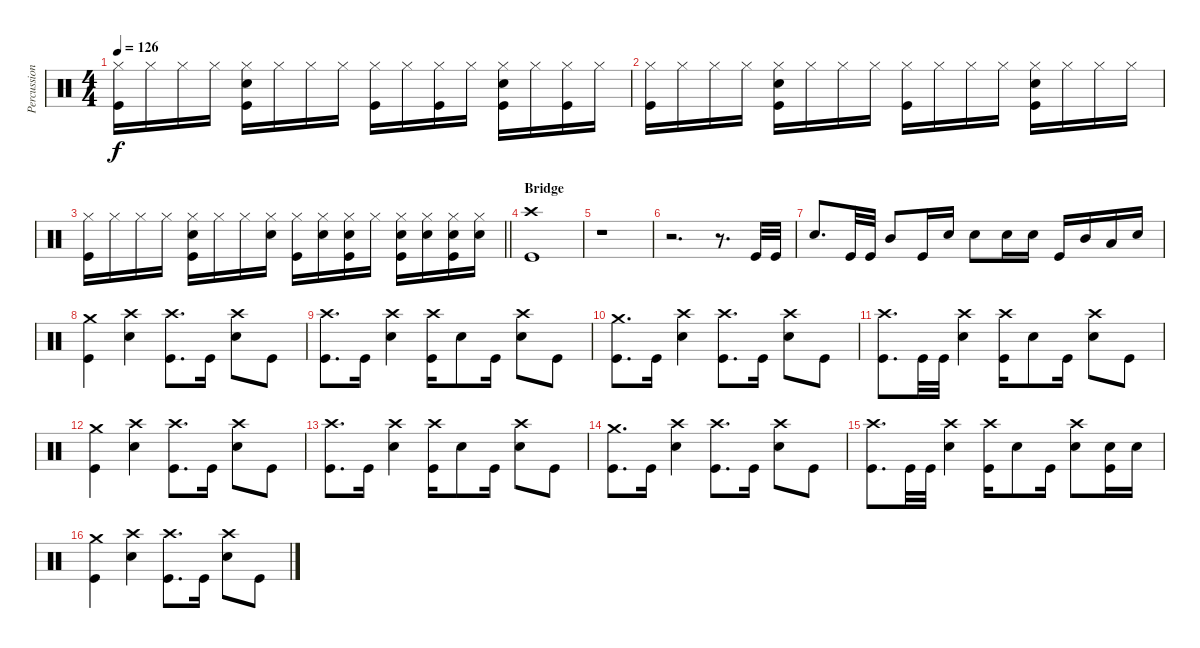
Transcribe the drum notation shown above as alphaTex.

\track ("Percussion" "Percussion") {instrument percussion}
\staff {score}
\articulation defaults
\ts (4 4)
\tempo 126
\clef neutral
\ks c
("Hi-Hat (closed)" "Kick (hit)").16{dy f} "Hi-Hat (closed)".16 "Hi-Hat (closed)".16 "Hi-Hat (closed)".16 ("Hi-Hat (closed)" "Electric Snare (hit)" "Kick (hit)").16 "Hi-Hat (closed)".16 "Hi-Hat (closed)".16 "Hi-Hat (closed)".16 ("Hi-Hat (closed)" "Kick (hit)").16 "Hi-Hat (closed)".16 ("Hi-Hat (closed)" "Kick (hit)").16 "Hi-Hat (closed)".16 ("Hi-Hat (closed)" "Electric Snare (hit)" "Kick (hit)").16 "Hi-Hat (closed)".16 ("Hi-Hat (closed)" "Kick (hit)").16 "Hi-Hat (closed)".16 |
("Hi-Hat (closed)" "Kick (hit)").16 "Hi-Hat (closed)".16 "Hi-Hat (closed)".16 "Hi-Hat (closed)".16 ("Hi-Hat (closed)" "Electric Snare (hit)" "Kick (hit)").16 "Hi-Hat (closed)".16 "Hi-Hat (closed)".16 "Hi-Hat (closed)".16 ("Hi-Hat (closed)" "Kick (hit)").16 "Hi-Hat (closed)".16 "Hi-Hat (closed)".16 "Hi-Hat (closed)".16 ("Hi-Hat (closed)" "Electric Snare (hit)" "Kick (hit)").16 "Hi-Hat (closed)".16 "Hi-Hat (closed)".16 "Hi-Hat (closed)".16 |
\barLineRight lightlight
("Hi-Hat (closed)" "Kick (hit)").16 "Hi-Hat (closed)".16 "Hi-Hat (closed)".16 "Hi-Hat (closed)".16 ("Hi-Hat (closed)" "Electric Snare (hit)" "Kick (hit)").16 "Hi-Hat (closed)".16 "Hi-Hat (closed)".16 ("Hi-Hat (closed)" "Electric Snare (hit)").16 ("Hi-Hat (closed)" "Kick (hit)").16 ("Hi-Hat (closed)" "Electric Snare (hit)").16 ("Hi-Hat (closed)" "Electric Snare (hit)" "Kick (hit)").16 "Hi-Hat (closed)".16 ("Hi-Hat (closed)" "Electric Snare (hit)" "Kick (hit)").16 ("Hi-Hat (closed)" "Electric Snare (hit)").16 ("Hi-Hat (closed)" "Electric Snare (hit)" "Kick (hit)").16 ("Hi-Hat (closed)" "Electric Snare (hit)").16 |
\section ("" "Bridge")
("Crash high (hit)" "Kick (hit)").1 |
r.1 |
r.2{d} r.8{d} "Kick (hit)".32 "Kick (hit)".32 |
"Electric Snare (hit)".8{d} "Kick (hit)".32 "Kick (hit)".32 "Mid Tom (hit)".8 "Kick (hit)".16 "Electric Snare (hit)".16 "Electric Snare (hit)".8 "Electric Snare (hit)".16 "Electric Snare (hit)".16 "Kick (hit)".16 "Mid Tom (hit)".16 "Low Tom (hit)".16 "Electric Snare (hit)".16 |
("Crash medium (hit)" "Kick (hit)").4 ("Crash high (hit)" "Electric Snare (hit)").4 ("Crash high (hit)" "Kick (hit)").8{d} "Kick (hit)".16 ("Crash high (hit)" "Electric Snare (hit)").8 "Kick (hit)".8 |
("Crash high (hit)" "Kick (hit)").8{d} "Kick (hit)".16 ("Crash high (hit)" "Electric Snare (hit)").4 ("Crash high (hit)" "Kick (hit)").16 "Electric Snare (hit)".8 "Kick (hit)".16 ("Crash high (hit)" "Electric Snare (hit)").8 "Kick (hit)".8 |
("Crash medium (hit)" "Kick (hit)").8{d} "Kick (hit)".16 ("Crash high (hit)" "Electric Snare (hit)").4 ("Crash high (hit)" "Kick (hit)").8{d} "Kick (hit)".16 ("Crash high (hit)" "Electric Snare (hit)").8 "Kick (hit)".8 |
("Crash high (hit)" "Kick (hit)").8{d} "Kick (hit)".32 "Kick (hit)".32 ("Crash high (hit)" "Electric Snare (hit)").4 ("Crash high (hit)" "Kick (hit)").16 "Electric Snare (hit)".8 "Kick (hit)".16 ("Crash high (hit)" "Electric Snare (hit)").8 "Kick (hit)".8 |
("Crash medium (hit)" "Kick (hit)").4 ("Crash high (hit)" "Electric Snare (hit)").4 ("Crash high (hit)" "Kick (hit)").8{d} "Kick (hit)".16 ("Crash high (hit)" "Electric Snare (hit)").8 "Kick (hit)".8 |
("Crash high (hit)" "Kick (hit)").8{d} "Kick (hit)".16 ("Crash high (hit)" "Electric Snare (hit)").4 ("Crash high (hit)" "Kick (hit)").16 "Electric Snare (hit)".8 "Kick (hit)".16 ("Crash high (hit)" "Electric Snare (hit)").8 "Kick (hit)".8 |
("Crash medium (hit)" "Kick (hit)").8{d} "Kick (hit)".16 ("Crash high (hit)" "Electric Snare (hit)").4 ("Crash high (hit)" "Kick (hit)").8{d} "Kick (hit)".16 ("Crash high (hit)" "Electric Snare (hit)").8 "Kick (hit)".8 |
("Crash high (hit)" "Kick (hit)").8{d} "Kick (hit)".32 "Kick (hit)".32 ("Crash high (hit)" "Electric Snare (hit)").4 ("Crash high (hit)" "Kick (hit)").16 "Electric Snare (hit)".8 "Kick (hit)".16 ("Crash high (hit)" "Electric Snare (hit)").8 ("Electric Snare (hit)" "Kick (hit)").16 "Electric Snare (hit)".16 |
("Crash medium (hit)" "Kick (hit)").4 ("Crash high (hit)" "Electric Snare (hit)").4 ("Crash high (hit)" "Kick (hit)").8{d} "Kick (hit)".16 ("Crash high (hit)" "Electric Snare (hit)").8 "Kick (hit)".8
